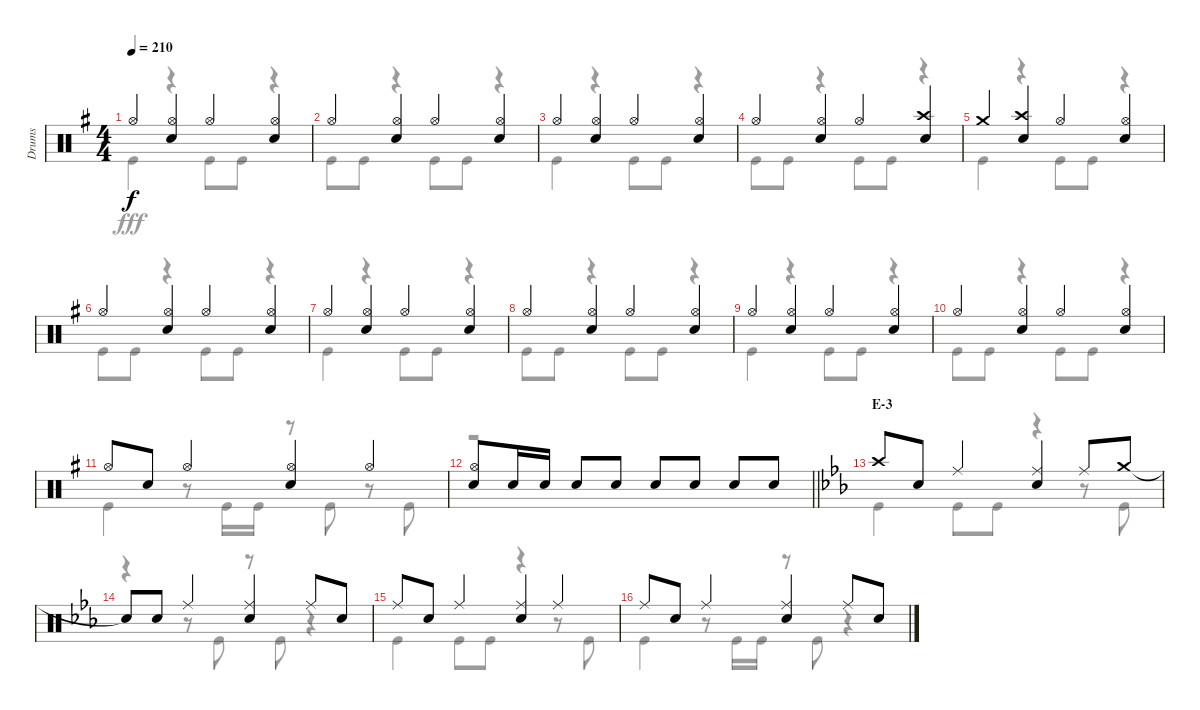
\track ("Drums" "Drums") {instrument percussion}
\staff {score}
\articulation defaults
\voice
\ts (4 4)
\tempo 210
\clef neutral
\ks g "Hi-Hat (open)".4{dy f}
("Hi-Hat (open)" "Snare (hit) 2").4 "Hi-Hat (open)".4 ("Hi-Hat (open)" "Snare (hit) 2").4 |
"Hi-Hat (open)".4 ("Hi-Hat (open)" "Snare (hit) 2").4 "Hi-Hat (open)".4 ("Hi-Hat (open)" "Snare (hit) 2").4 |
"Hi-Hat (open)".4 ("Hi-Hat (open)" "Snare (hit) 2").4 "Hi-Hat (open)".4 ("Hi-Hat (open)" "Snare (hit) 2").4 |
"Hi-Hat (open)".4 ("Hi-Hat (open)" "Snare (hit) 2").4 "Hi-Hat (open)".4 ("Crash high (hit)" "Snare (hit) 2").4 |
"Crash medium (hit)".4 ("Crash high (hit)" "Snare (hit) 2").4 "Hi-Hat (open)".4 ("Hi-Hat (open)" "Snare (hit) 2").4 |
"Hi-Hat (open)".4 ("Hi-Hat (open)" "Snare (hit) 2").4 "Hi-Hat (open)".4 ("Hi-Hat (open)" "Snare (hit) 2").4 |
"Hi-Hat (open)".4 ("Hi-Hat (open)" "Snare (hit) 2").4 "Hi-Hat (open)".4 ("Hi-Hat (open)" "Snare (hit) 2").4 |
"Hi-Hat (open)".4 ("Hi-Hat (open)" "Snare (hit) 2").4 "Hi-Hat (open)".4 ("Hi-Hat (open)" "Snare (hit) 2").4 |
"Hi-Hat (open)".4 ("Hi-Hat (open)" "Snare (hit) 2").4 "Hi-Hat (open)".4 ("Hi-Hat (open)" "Snare (hit) 2").4 |
"Hi-Hat (open)".4 ("Hi-Hat (open)" "Snare (hit) 2").4 "Hi-Hat (open)".4 ("Hi-Hat (open)" "Snare (hit) 2").4 |
"Hi-Hat (open)".8 "Snare (hit) 2".8 "Hi-Hat (open)".4 ("Hi-Hat (open)" "Snare (hit) 2").4 "Hi-Hat (open)".4 |
\barLineRight lightlight
("Hi-Hat (open)" "Snare (hit) 2").8 "Snare (hit) 2".16 "Snare (hit) 2".16 "Snare (hit) 2".8 "Snare (hit) 2".8 "Snare (hit) 2".8 "Snare (hit) 2".8 "Snare (hit) 2".8 "Snare (hit) 2".8 |
\section ("" "E-3")
\ks eb "Crash high (hit)".8 "Snare (hit) 2".8 "Ride (middle)".4
("Ride (middle)" "Snare (hit) 2").4 "Ride (middle)".8 "Crash medium (hit)".8 |
"Snare (hit)"{t}.8 "Snare (hit) 2".8 "Ride (middle)".4 ("Ride (middle)" "Snare (hit) 2").4 "Ride (middle)".8 "Snare (hit) 2".8 |
"Ride (middle)".8 "Snare (hit) 2".8 "Ride (middle)".4 ("Ride (middle)" "Snare (hit) 2").4 "Ride (middle)".4 |
"Ride (middle)".8 "Snare (hit) 2".8 "Ride (middle)".4 ("Ride (middle)" "Snare (hit) 2").4 "Ride (middle)".8 "Snare (hit) 2".8
\voice
\clef neutral
\ottava regular
\simile none
\ks g "Kick (hit)".4{dy fff}
r.4 "Kick (hit)".8 "Kick (hit)".8 r.4 |
"Kick (hit)".8 "Kick (hit)".8 r.4 "Kick (hit)".8 "Kick (hit)".8 r.4 |
"Kick (hit)".4 r.4 "Kick (hit)".8 "Kick (hit)".8 r.4 |
"Kick (hit)".8 "Kick (hit)".8 r.4 "Kick (hit)".8 "Kick (hit)".8 r.4 |
"Kick (hit)".4 r.4 "Kick (hit)".8 "Kick (hit)".8 r.4 |
"Kick (hit)".8 "Kick (hit)".8 r.4 "Kick (hit)".8 "Kick (hit)".8 r.4 |
"Kick (hit)".4 r.4 "Kick (hit)".8 "Kick (hit)".8 r.4 |
"Kick (hit)".8 "Kick (hit)".8 r.4 "Kick (hit)".8 "Kick (hit)".8 r.4 |
"Kick (hit)".4 r.4 "Kick (hit)".8 "Kick (hit)".8 r.4 |
"Kick (hit)".8 "Kick (hit)".8 r.4 "Kick (hit)".8 "Kick (hit)".8 r.4 |
"Kick (hit)".4 r.8 "Kick (hit)".16 "Kick (hit)".16 r.8 "Kick (hit)".8 r.8 "Kick (hit)".8 |
\barLineRight lightlight
r.1 |
\ks eb "Kick (hit)".4 "Kick (hit)".8 "Kick (hit)".8
r.4 r.8 "Kick (hit)".8 |
r.4 r.8 "Kick (hit)".8 r.8 "Kick (hit)".8 r.4 |
"Kick (hit)".4 "Kick (hit)".8 "Kick (hit)".8 r.4 r.8 "Kick (hit)".8 |
"Kick (hit)".4 r.8 "Kick (hit)".16 "Kick (hit)".16 r.8 "Kick (hit)".8 r.4
